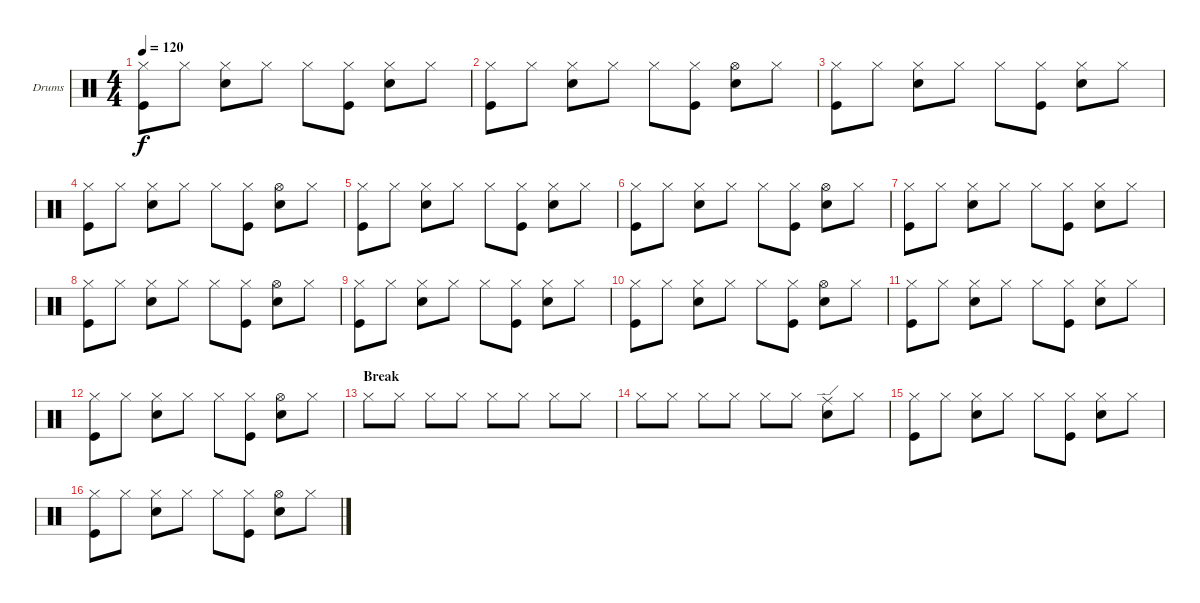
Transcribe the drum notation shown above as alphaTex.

\defaultSystemsLayout 4
\bracketExtendMode groupsimilarinstruments
\firstSystemTrackNameOrientation horizontal
\otherSystemsTrackNameOrientation horizontal
\track ("Drums" "Drums") {instrument percussion}
\staff {score}
\articulation defaults
\ts (4 4)
\tempo 120
\clef neutral
\ks c
("Kick (hit)" "Hi-Hat (closed)").8{dy f} "Hi-Hat (closed)".8 ("Snare (hit) 2" "Hi-Hat (closed)").8 "Hi-Hat (closed)".8 "Hi-Hat (closed)".8 ("Kick (hit)" "Hi-Hat (closed)").8 ("Snare (hit) 2" "Hi-Hat (closed)").8 "Hi-Hat (closed)".8 |
("Kick (hit)" "Hi-Hat (closed)").8 "Hi-Hat (closed)".8 ("Snare (hit) 2" "Hi-Hat (closed)").8 "Hi-Hat (closed)".8 "Hi-Hat (closed)".8 ("Kick (hit)" "Hi-Hat (closed)").8 ("Snare (hit) 2" "Hi-Hat (open)").8 "Hi-Hat (closed)".8 |
("Kick (hit)" "Hi-Hat (closed)").8 "Hi-Hat (closed)".8 ("Snare (hit) 2" "Hi-Hat (closed)").8 "Hi-Hat (closed)".8 "Hi-Hat (closed)".8 ("Kick (hit)" "Hi-Hat (closed)").8 ("Snare (hit) 2" "Hi-Hat (closed)").8 "Hi-Hat (closed)".8 |
("Kick (hit)" "Hi-Hat (closed)").8 "Hi-Hat (closed)".8 ("Snare (hit) 2" "Hi-Hat (closed)").8 "Hi-Hat (closed)".8 "Hi-Hat (closed)".8 ("Kick (hit)" "Hi-Hat (closed)").8 ("Snare (hit) 2" "Hi-Hat (open)").8 "Hi-Hat (closed)".8 |
("Kick (hit)" "Hi-Hat (closed)").8 "Hi-Hat (closed)".8 ("Snare (hit) 2" "Hi-Hat (closed)").8 "Hi-Hat (closed)".8 "Hi-Hat (closed)".8 ("Kick (hit)" "Hi-Hat (closed)").8 ("Snare (hit) 2" "Hi-Hat (closed)").8 "Hi-Hat (closed)".8 |
("Kick (hit)" "Hi-Hat (closed)").8 "Hi-Hat (closed)".8 ("Snare (hit) 2" "Hi-Hat (closed)").8 "Hi-Hat (closed)".8 "Hi-Hat (closed)".8 ("Kick (hit)" "Hi-Hat (closed)").8 ("Snare (hit) 2" "Hi-Hat (open)").8 "Hi-Hat (closed)".8 |
("Kick (hit)" "Hi-Hat (closed)").8 "Hi-Hat (closed)".8 ("Snare (hit) 2" "Hi-Hat (closed)").8 "Hi-Hat (closed)".8 "Hi-Hat (closed)".8 ("Kick (hit)" "Hi-Hat (closed)").8 ("Snare (hit) 2" "Hi-Hat (closed)").8 "Hi-Hat (closed)".8 |
("Kick (hit)" "Hi-Hat (closed)").8 "Hi-Hat (closed)".8 ("Snare (hit) 2" "Hi-Hat (closed)").8 "Hi-Hat (closed)".8 "Hi-Hat (closed)".8 ("Kick (hit)" "Hi-Hat (closed)").8 ("Snare (hit) 2" "Hi-Hat (open)").8 "Hi-Hat (closed)".8 |
("Kick (hit)" "Hi-Hat (closed)").8 "Hi-Hat (closed)".8 ("Snare (hit) 2" "Hi-Hat (closed)").8 "Hi-Hat (closed)".8 "Hi-Hat (closed)".8 ("Kick (hit)" "Hi-Hat (closed)").8 ("Snare (hit) 2" "Hi-Hat (closed)").8 "Hi-Hat (closed)".8 |
("Kick (hit)" "Hi-Hat (closed)").8 "Hi-Hat (closed)".8 ("Snare (hit) 2" "Hi-Hat (closed)").8 "Hi-Hat (closed)".8 "Hi-Hat (closed)".8 ("Kick (hit)" "Hi-Hat (closed)").8 ("Snare (hit) 2" "Hi-Hat (open)").8 "Hi-Hat (closed)".8 |
("Kick (hit)" "Hi-Hat (closed)").8 "Hi-Hat (closed)".8 ("Snare (hit) 2" "Hi-Hat (closed)").8 "Hi-Hat (closed)".8 "Hi-Hat (closed)".8 ("Kick (hit)" "Hi-Hat (closed)").8 ("Snare (hit) 2" "Hi-Hat (closed)").8 "Hi-Hat (closed)".8 |
("Kick (hit)" "Hi-Hat (closed)").8 "Hi-Hat (closed)".8 ("Snare (hit) 2" "Hi-Hat (closed)").8 "Hi-Hat (closed)".8 "Hi-Hat (closed)".8 ("Kick (hit)" "Hi-Hat (closed)").8 ("Snare (hit) 2" "Hi-Hat (open)").8 "Hi-Hat (closed)".8 |
\section ("" "Break")
"Hi-Hat (closed)".8 "Hi-Hat (closed)".8 "Hi-Hat (closed)".8 "Hi-Hat (closed)".8 "Hi-Hat (closed)".8 "Hi-Hat (closed)".8 "Hi-Hat (closed)".8 "Hi-Hat (closed)".8 |
"Hi-Hat (closed)".8 "Hi-Hat (closed)".8 "Hi-Hat (closed)".8 "Hi-Hat (closed)".8 "Hi-Hat (closed)".8 "Hi-Hat (closed)".8 ("Snare (hit) 2" "Ride (edge)").8 "Hi-Hat (closed)".8 |
("Kick (hit)" "Hi-Hat (closed)").8 "Hi-Hat (closed)".8 ("Snare (hit) 2" "Hi-Hat (closed)").8 "Hi-Hat (closed)".8 "Hi-Hat (closed)".8 ("Kick (hit)" "Hi-Hat (closed)").8 ("Snare (hit) 2" "Hi-Hat (closed)").8 "Hi-Hat (closed)".8 |
("Kick (hit)" "Hi-Hat (closed)").8 "Hi-Hat (closed)".8 ("Snare (hit) 2" "Hi-Hat (closed)").8 "Hi-Hat (closed)".8 "Hi-Hat (closed)".8 ("Kick (hit)" "Hi-Hat (closed)").8 ("Snare (hit) 2" "Hi-Hat (open)").8 "Hi-Hat (closed)".8
